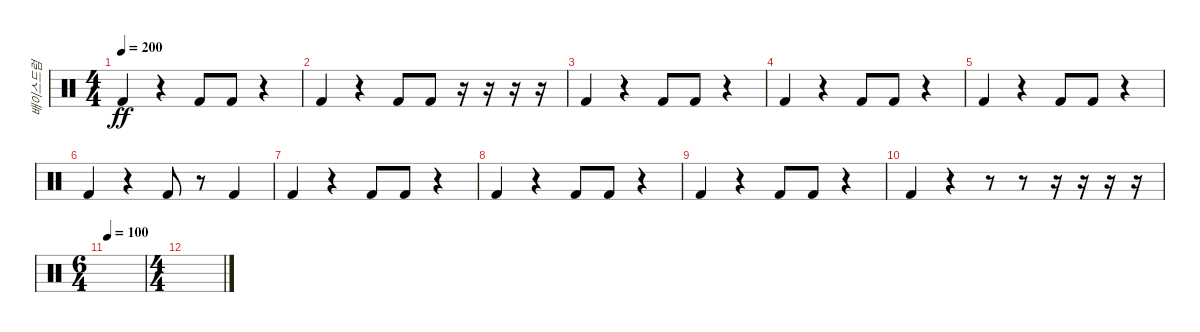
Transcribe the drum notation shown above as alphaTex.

\track ("배이스드럼" "배이스드럼") {instrument percussion}
\staff {score}
\articulation defaults
\ts (4 4)
\tempo 200
\clef neutral
\ks c "Kick (hit) 2".4{dy ff}
r.4 "Kick (hit) 2".8 "Kick (hit) 2".8 r.4 |
"Kick (hit) 2".4 r.4 "Kick (hit) 2".8 "Kick (hit) 2".8 r.16 r.16 r.16 r.16 |
"Kick (hit) 2".4 r.4 "Kick (hit) 2".8 "Kick (hit) 2".8 r.4 |
"Kick (hit) 2".4 r.4 "Kick (hit) 2".8 "Kick (hit) 2".8 r.4 |
"Kick (hit) 2".4 r.4 "Kick (hit) 2".8 "Kick (hit) 2".8 r.4 |
"Kick (hit) 2".4 r.4 "Kick (hit) 2".8 r.8 "Kick (hit) 2".4 |
"Kick (hit) 2".4 r.4 "Kick (hit) 2".8 "Kick (hit) 2".8 r.4 |
"Kick (hit) 2".4 r.4 "Kick (hit) 2".8 "Kick (hit) 2".8 r.4 |
"Kick (hit) 2".4 r.4 "Kick (hit) 2".8 "Kick (hit) 2".8 r.4 |
"Kick (hit) 2".4 r.4 r.8 r.8 r.16 r.16 r.16 r.16 |
\ts (6 4)
\tempo 100
|
\ts (4 4)
